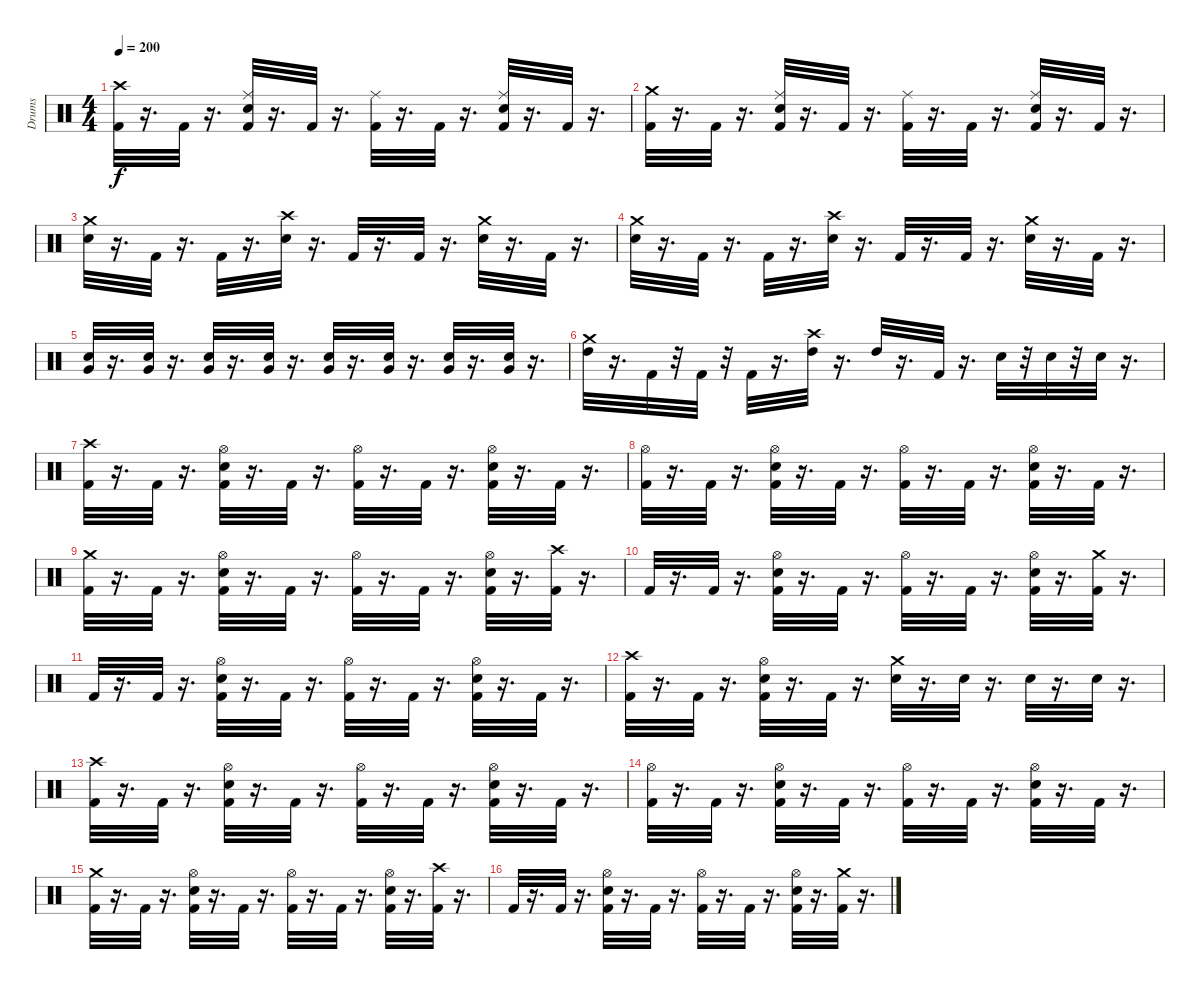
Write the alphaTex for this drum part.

\track ("Drums" "Drums") {instrument percussion}
\staff {score}
\articulation defaults
\ts (4 4)
\tempo 200
\clef neutral
\ks c
("Crash high (hit)" "Kick (hit) 2").32{dy f} r.16{d} "Kick (hit) 2".32 r.16{d} ("Ride (middle)" "Electric Snare (hit)" "Kick (hit) 2").32 r.16{d} "Kick (hit) 2".32 r.16{d} ("Ride (middle)" "Kick (hit) 2").32 r.16{d} "Kick (hit) 2".32 r.16{d} ("Ride (middle)" "Kick (hit) 2" "Electric Snare (hit)").32 r.16{d} "Kick (hit) 2".32 r.16{d} |
("Crash medium (hit)" "Kick (hit) 2").32 r.16{d} "Kick (hit) 2".32 r.16{d} ("Electric Snare (hit)" "Kick (hit) 2" "Ride (middle)").32 r.16{d} "Kick (hit) 2".32 r.16{d} ("Ride (middle)" "Kick (hit) 2").32 r.16{d} "Kick (hit) 2".32 r.16{d} ("Ride (middle)" "Kick (hit) 2" "Electric Snare (hit)").32 r.16{d} "Kick (hit) 2".32 r.16{d} |
("Crash medium (hit)" "Electric Snare (hit)").32 r.16{d} "Kick (hit) 2".32 r.16{d} "Kick (hit) 2".32 r.16{d} ("Electric Snare (hit)" "Crash high (hit)").32 r.16{d} "Kick (hit) 2".32 r.16{d} "Kick (hit) 2".32 r.16{d} ("Electric Snare (hit)" "Crash medium (hit)").32 r.16{d} "Kick (hit) 2".32 r.16{d} |
("Electric Snare (hit)" "Crash medium (hit)").32 r.16{d} "Kick (hit) 2".32 r.16{d} "Kick (hit) 2".32 r.16{d} ("Electric Snare (hit)" "Crash high (hit)").32 r.16{d} "Kick (hit) 2".32 r.16{d} "Kick (hit) 2".32 r.16{d} ("Electric Snare (hit)" "Crash medium (hit)").32 r.16{d} "Kick (hit) 2".32 r.16{d} |
("Electric Snare (hit)" "Very Low Tom (hit)").32 r.16{d} ("Electric Snare (hit)" "Very Low Tom (hit)").32 r.16{d} ("Electric Snare (hit)" "Very Low Tom (hit)").32 r.16{d} ("Electric Snare (hit)" "Very Low Tom (hit)").32 r.16{d} ("Electric Snare (hit)" "Very Low Tom (hit)").32 r.16{d} ("Electric Snare (hit)" "Very Low Tom (hit)").32 r.16{d} ("Electric Snare (hit)" "Very Low Tom (hit)").32 r.16{d} ("Electric Snare (hit)" "Very Low Tom (hit)").32 r.16{d} |
("High Tom (hit)" "Crash medium (hit)").32 r.16{d} "Kick (hit) 2".32 r.32 "Kick (hit) 2".32 r.32 "Kick (hit) 2".32 r.16{d} ("Crash high (hit)" "High Tom (hit)").32 r.16{d} "High Tom (hit)".32 r.16{d} "Kick (hit) 2".32 r.16{d} "Electric Snare (hit)".32 r.32 "Electric Snare (hit)".32 r.32 "Electric Snare (hit)".32 r.16{d} |
("Kick (hit) 2" "Crash high (hit)").32 r.16{d} "Kick (hit) 2".32 r.16{d} ("Hi-Hat (open)" "Kick (hit) 2" "Electric Snare (hit)").32 r.16{d} "Kick (hit) 2".32 r.16{d} ("Hi-Hat (open)" "Kick (hit) 2").32 r.16{d} "Kick (hit) 2".32 r.16{d} ("Hi-Hat (open)" "Kick (hit) 2" "Electric Snare (hit)").32 r.16{d} "Kick (hit) 2".32 r.16{d} |
("Hi-Hat (open)" "Kick (hit) 2").32 r.16{d} "Kick (hit) 2".32 r.16{d} ("Hi-Hat (open)" "Electric Snare (hit)" "Kick (hit) 2").32 r.16{d} "Kick (hit) 2".32 r.16{d} ("Hi-Hat (open)" "Kick (hit) 2").32 r.16{d} "Kick (hit) 2".32 r.16{d} ("Hi-Hat (open)" "Electric Snare (hit)" "Kick (hit) 2").32 r.16{d} "Kick (hit) 2".32 r.16{d} |
("Kick (hit) 2" "Crash medium (hit)").32 r.16{d} "Kick (hit) 2".32 r.16{d} ("Kick (hit) 2" "Electric Snare (hit)" "Hi-Hat (open)").32 r.16{d} "Kick (hit) 2".32 r.16{d} ("Kick (hit) 2" "Hi-Hat (open)").32 r.16{d} "Kick (hit) 2".32 r.16{d} ("Kick (hit) 2" "Electric Snare (hit)" "Hi-Hat (open)").32 r.16{d} ("Kick (hit) 2" "Crash high (hit)").32 r.16{d} |
"Kick (hit) 2".32 r.16{d} "Kick (hit) 2".32 r.16{d} ("Hi-Hat (open)" "Kick (hit) 2" "Electric Snare (hit)").32 r.16{d} "Kick (hit) 2".32 r.16{d} ("Hi-Hat (open)" "Kick (hit) 2").32 r.16{d} "Kick (hit) 2".32 r.16{d} ("Hi-Hat (open)" "Electric Snare (hit)" "Kick (hit) 2").32 r.16{d} ("Crash medium (hit)" "Kick (hit) 2").32 r.16{d} |
"Kick (hit) 2".32 r.16{d} "Kick (hit) 2".32 r.16{d} ("Hi-Hat (open)" "Kick (hit) 2" "Electric Snare (hit)").32 r.16{d} "Kick (hit) 2".32 r.16{d} ("Hi-Hat (open)" "Kick (hit) 2").32 r.16{d} "Kick (hit) 2".32 r.16{d} ("Hi-Hat (open)" "Electric Snare (hit)" "Kick (hit) 2").32 r.16{d} "Kick (hit) 2".32 r.16{d} |
("Crash high (hit)" "Kick (hit) 2").32 r.16{d} "Kick (hit) 2".32 r.16{d} ("Electric Snare (hit)" "Kick (hit) 2" "Hi-Hat (open)").32 r.16{d} "Kick (hit) 2".32 r.16{d} ("Electric Snare (hit)" "Crash medium (hit)").32 r.16{d} "Electric Snare (hit)".32 r.16{d} "Electric Snare (hit)".32 r.16{d} "Electric Snare (hit)".32 r.16{d} |
("Kick (hit) 2" "Crash high (hit)").32 r.16{d} "Kick (hit) 2".32 r.16{d} ("Hi-Hat (open)" "Kick (hit) 2" "Electric Snare (hit)").32 r.16{d} "Kick (hit) 2".32 r.16{d} ("Hi-Hat (open)" "Kick (hit) 2").32 r.16{d} "Kick (hit) 2".32 r.16{d} ("Hi-Hat (open)" "Kick (hit) 2" "Electric Snare (hit)").32 r.16{d} "Kick (hit) 2".32 r.16{d} |
("Hi-Hat (open)" "Kick (hit) 2").32 r.16{d} "Kick (hit) 2".32 r.16{d} ("Hi-Hat (open)" "Electric Snare (hit)" "Kick (hit) 2").32 r.16{d} "Kick (hit) 2".32 r.16{d} ("Hi-Hat (open)" "Kick (hit) 2").32 r.16{d} "Kick (hit) 2".32 r.16{d} ("Hi-Hat (open)" "Electric Snare (hit)" "Kick (hit) 2").32 r.16{d} "Kick (hit) 2".32 r.16{d} |
("Kick (hit) 2" "Crash medium (hit)").32 r.16{d} "Kick (hit) 2".32 r.16{d} ("Kick (hit) 2" "Electric Snare (hit)" "Hi-Hat (open)").32 r.16{d} "Kick (hit) 2".32 r.16{d} ("Kick (hit) 2" "Hi-Hat (open)").32 r.16{d} "Kick (hit) 2".32 r.16{d} ("Kick (hit) 2" "Electric Snare (hit)" "Hi-Hat (open)").32 r.16{d} ("Kick (hit) 2" "Crash high (hit)").32 r.16{d} |
"Kick (hit) 2".32 r.16{d} "Kick (hit) 2".32 r.16{d} ("Hi-Hat (open)" "Kick (hit) 2" "Electric Snare (hit)").32 r.16{d} "Kick (hit) 2".32 r.16{d} ("Hi-Hat (open)" "Kick (hit) 2").32 r.16{d} "Kick (hit) 2".32 r.16{d} ("Hi-Hat (open)" "Electric Snare (hit)" "Kick (hit) 2").32 r.16{d} ("Crash medium (hit)" "Kick (hit) 2").32 r.16{d}
